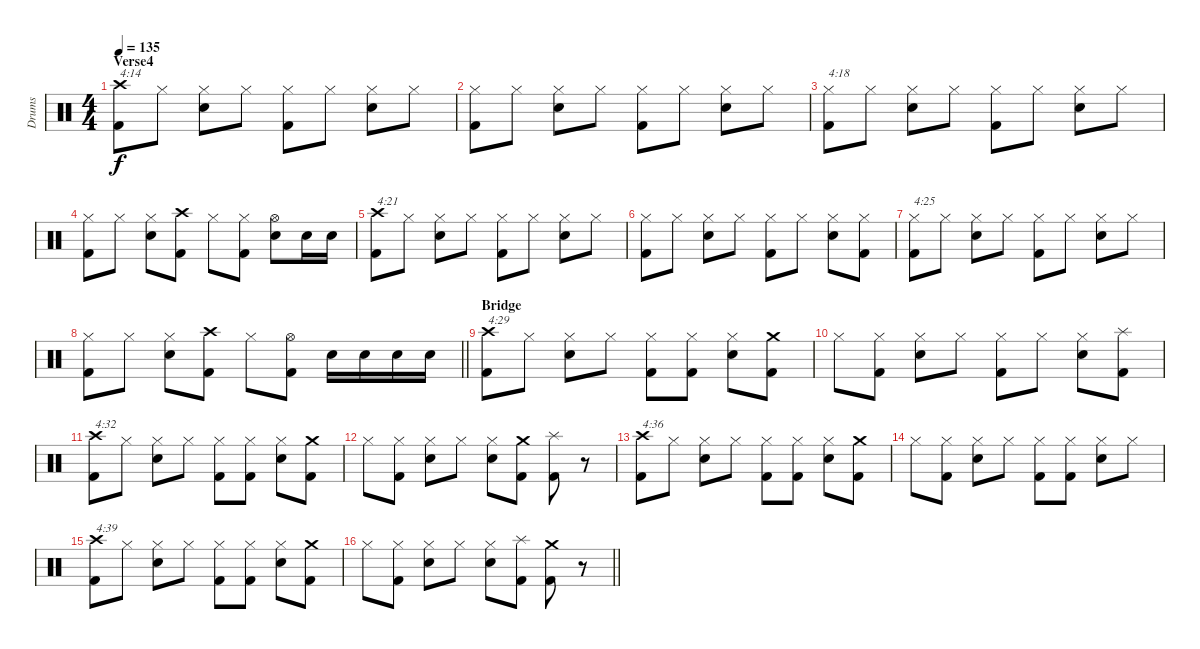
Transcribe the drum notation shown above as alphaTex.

\track ("Drums" "Drums") {instrument percussion}
\staff {score}
\articulation defaults
\ts (4 4)
\section ("" "Verse4")
\tempo 135
\clef neutral
\ks c
("Crash high (hit)" "Kick (hit) 2").8{txt "4:14" dy f} "Hi-Hat (closed)".8 ("Hi-Hat (closed)" "Electric Snare (hit)").8 "Hi-Hat (closed)".8 ("Hi-Hat (closed)" "Kick (hit) 2").8 "Hi-Hat (closed)".8 ("Hi-Hat (closed)" "Electric Snare (hit)").8 "Hi-Hat (closed)".8 |
("Hi-Hat (closed)" "Kick (hit) 2").8 "Hi-Hat (closed)".8 ("Hi-Hat (closed)" "Electric Snare (hit)").8 "Hi-Hat (closed)".8 ("Hi-Hat (closed)" "Kick (hit) 2").8 "Hi-Hat (closed)".8 ("Hi-Hat (closed)" "Electric Snare (hit)").8 "Hi-Hat (closed)".8 |
("Hi-Hat (closed)" "Kick (hit) 2").8{txt "4:18"} "Hi-Hat (closed)".8 ("Hi-Hat (closed)" "Electric Snare (hit)").8 "Hi-Hat (closed)".8 ("Hi-Hat (closed)" "Kick (hit) 2").8 "Hi-Hat (closed)".8 ("Hi-Hat (closed)" "Electric Snare (hit)").8 "Hi-Hat (closed)".8 |
("Hi-Hat (closed)" "Kick (hit) 2").8 "Hi-Hat (closed)".8 ("Hi-Hat (closed)" "Electric Snare (hit)").8 ("Crash high (hit)" "Kick (hit) 2").8 "Hi-Hat (closed)".8 ("Hi-Hat (closed)" "Kick (hit) 2").8 ("Hi-Hat (open)" "Electric Snare (hit)").8 "Electric Snare (hit)".16 "Electric Snare (hit)".16 |
("Crash high (hit)" "Kick (hit) 2").8{txt "4:21"} "Hi-Hat (closed)".8 ("Hi-Hat (closed)" "Electric Snare (hit)").8 "Hi-Hat (closed)".8 ("Hi-Hat (closed)" "Kick (hit) 2").8 "Hi-Hat (closed)".8 ("Hi-Hat (closed)" "Electric Snare (hit)").8 "Hi-Hat (closed)".8 |
("Hi-Hat (closed)" "Kick (hit) 2").8 "Hi-Hat (closed)".8 ("Hi-Hat (closed)" "Electric Snare (hit)").8 "Hi-Hat (closed)".8 ("Hi-Hat (closed)" "Kick (hit) 2").8 "Hi-Hat (closed)".8 ("Hi-Hat (closed)" "Electric Snare (hit)").8 ("Hi-Hat (closed)" "Kick (hit) 2").8 |
("Hi-Hat (closed)" "Kick (hit) 2").8{txt "4:25"} "Hi-Hat (closed)".8 ("Hi-Hat (closed)" "Electric Snare (hit)").8 "Hi-Hat (closed)".8 ("Hi-Hat (closed)" "Kick (hit) 2").8 "Hi-Hat (closed)".8 ("Hi-Hat (closed)" "Electric Snare (hit)").8 "Hi-Hat (closed)".8 |
\barLineRight lightlight
("Hi-Hat (closed)" "Kick (hit) 2").8 "Hi-Hat (closed)".8 ("Hi-Hat (closed)" "Electric Snare (hit)").8 ("Crash high (hit)" "Kick (hit) 2").8 "Hi-Hat (closed)".8 ("Hi-Hat (open)" "Kick (hit) 2").8 "Electric Snare (hit)".16 "Electric Snare (hit)".16 "Electric Snare (hit)".16 "Electric Snare (hit)".16 |
\section ("" "Bridge")
("Crash high (hit)" "Kick (hit) 2").8{txt "4:29"} "Hi-Hat (closed)".8 ("Hi-Hat (closed)" "Electric Snare (hit)").8 "Hi-Hat (closed)".8 ("Hi-Hat (closed)" "Kick (hit) 2").8 ("Hi-Hat (closed)" "Kick (hit) 2").8 ("Hi-Hat (closed)" "Electric Snare (hit)").8 ("Crash medium (hit)" "Kick (hit) 2").8 |
"Hi-Hat (closed)".8 ("Hi-Hat (closed)" "Kick (hit) 2").8 ("Hi-Hat (closed)" "Electric Snare (hit)").8 "Hi-Hat (closed)".8 ("Hi-Hat (closed)" "Kick (hit) 2").8 "Hi-Hat (closed)".8 ("Hi-Hat (closed)" "Electric Snare (hit)").8 ("Splash (hit)" "Kick (hit) 2").8 |
("Crash high (hit)" "Kick (hit) 2").8{txt "4:32"} "Hi-Hat (closed)".8 ("Hi-Hat (closed)" "Electric Snare (hit)").8 "Hi-Hat (closed)".8 ("Hi-Hat (closed)" "Kick (hit) 2").8 ("Hi-Hat (closed)" "Kick (hit) 2").8 ("Hi-Hat (closed)" "Electric Snare (hit)").8 ("Crash medium (hit)" "Kick (hit) 2").8 |
"Hi-Hat (closed)".8 ("Hi-Hat (closed)" "Kick (hit) 2").8 ("Hi-Hat (closed)" "Electric Snare (hit)").8 "Hi-Hat (closed)".8 ("Hi-Hat (closed)" "Electric Snare (hit)").8 ("Crash medium (hit)" "Kick (hit) 2").8 ("Splash (hit)" "Kick (hit) 2").8 r.8 |
("Crash high (hit)" "Kick (hit) 2").8{txt "4:36"} "Hi-Hat (closed)".8 ("Hi-Hat (closed)" "Electric Snare (hit)").8 "Hi-Hat (closed)".8 ("Hi-Hat (closed)" "Kick (hit) 2").8 ("Hi-Hat (closed)" "Kick (hit) 2").8 ("Hi-Hat (closed)" "Electric Snare (hit)").8 ("Crash medium (hit)" "Kick (hit) 2").8 |
"Hi-Hat (closed)".8 ("Hi-Hat (closed)" "Kick (hit) 2").8 ("Hi-Hat (closed)" "Electric Snare (hit)").8 "Hi-Hat (closed)".8 ("Hi-Hat (closed)" "Kick (hit) 2").8 ("Hi-Hat (closed)" "Kick (hit) 2").8 ("Hi-Hat (closed)" "Electric Snare (hit)").8 "Hi-Hat (closed)".8 |
("Crash high (hit)" "Kick (hit) 2").8{txt "4:39"} "Hi-Hat (closed)".8 ("Hi-Hat (closed)" "Electric Snare (hit)").8 "Hi-Hat (closed)".8 ("Hi-Hat (closed)" "Kick (hit) 2").8 ("Hi-Hat (closed)" "Kick (hit) 2").8 ("Hi-Hat (closed)" "Electric Snare (hit)").8 ("Crash medium (hit)" "Kick (hit) 2").8 |
\barLineRight lightlight "Hi-Hat (closed)".8
("Hi-Hat (closed)" "Kick (hit) 2").8 ("Hi-Hat (closed)" "Electric Snare (hit)").8 "Hi-Hat (closed)".8 ("Hi-Hat (closed)" "Electric Snare (hit)").8 ("Splash (hit)" "Kick (hit) 2").8 ("Crash medium (hit)" "Kick (hit) 2").8 r.8
